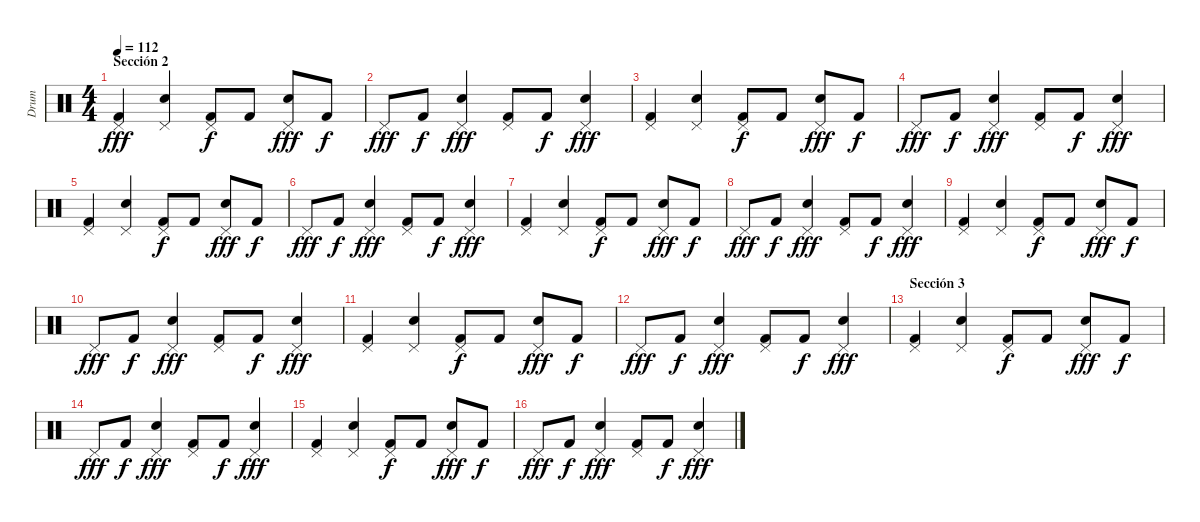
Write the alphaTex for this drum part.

\track ("Drum" "Drum") {instrument percussion}
\staff {score}
\articulation defaults
\ts (4 4)
\section ("" "Sección 2")
\tempo 112
\clef neutral
\ks c
("Pedal Hi-Hat (hit)" "Kick (hit) 2").4{dy fff} ("Pedal Hi-Hat (hit)" "Electric Snare (hit)").4 ("Pedal Hi-Hat (hit)" "Kick (hit) 2").8{dy f} "Kick (hit) 2".8 ("Pedal Hi-Hat (hit)" "Electric Snare (hit)").8{dy fff} "Kick (hit) 2".8{dy f} |
"Pedal Hi-Hat (hit)".8{dy fff} "Kick (hit) 2".8{dy f} ("Pedal Hi-Hat (hit)" "Electric Snare (hit)").4{dy fff} ("Pedal Hi-Hat (hit)" "Kick (hit) 2").8 "Kick (hit) 2".8{dy f} ("Pedal Hi-Hat (hit)" "Electric Snare (hit)").4{dy fff} |
("Pedal Hi-Hat (hit)" "Kick (hit) 2").4 ("Pedal Hi-Hat (hit)" "Electric Snare (hit)").4 ("Pedal Hi-Hat (hit)" "Kick (hit) 2").8{dy f} "Kick (hit) 2".8 ("Pedal Hi-Hat (hit)" "Electric Snare (hit)").8{dy fff} "Kick (hit) 2".8{dy f} |
"Pedal Hi-Hat (hit)".8{dy fff} "Kick (hit) 2".8{dy f} ("Pedal Hi-Hat (hit)" "Electric Snare (hit)").4{dy fff} ("Pedal Hi-Hat (hit)" "Kick (hit) 2").8 "Kick (hit) 2".8{dy f} ("Pedal Hi-Hat (hit)" "Electric Snare (hit)").4{dy fff} |
("Pedal Hi-Hat (hit)" "Kick (hit) 2").4 ("Pedal Hi-Hat (hit)" "Electric Snare (hit)").4 ("Pedal Hi-Hat (hit)" "Kick (hit) 2").8{dy f} "Kick (hit) 2".8 ("Pedal Hi-Hat (hit)" "Electric Snare (hit)").8{dy fff} "Kick (hit) 2".8{dy f} |
"Pedal Hi-Hat (hit)".8{dy fff} "Kick (hit) 2".8{dy f} ("Pedal Hi-Hat (hit)" "Electric Snare (hit)").4{dy fff} ("Pedal Hi-Hat (hit)" "Kick (hit) 2").8 "Kick (hit) 2".8{dy f} ("Pedal Hi-Hat (hit)" "Electric Snare (hit)").4{dy fff} |
("Pedal Hi-Hat (hit)" "Kick (hit) 2").4 ("Pedal Hi-Hat (hit)" "Electric Snare (hit)").4 ("Pedal Hi-Hat (hit)" "Kick (hit) 2").8{dy f} "Kick (hit) 2".8 ("Pedal Hi-Hat (hit)" "Electric Snare (hit)").8{dy fff} "Kick (hit) 2".8{dy f} |
"Pedal Hi-Hat (hit)".8{dy fff} "Kick (hit) 2".8{dy f} ("Pedal Hi-Hat (hit)" "Electric Snare (hit)").4{dy fff} ("Pedal Hi-Hat (hit)" "Kick (hit) 2").8 "Kick (hit) 2".8{dy f} ("Pedal Hi-Hat (hit)" "Electric Snare (hit)").4{dy fff} |
("Pedal Hi-Hat (hit)" "Kick (hit) 2").4 ("Pedal Hi-Hat (hit)" "Electric Snare (hit)").4 ("Pedal Hi-Hat (hit)" "Kick (hit) 2").8{dy f} "Kick (hit) 2".8 ("Pedal Hi-Hat (hit)" "Electric Snare (hit)").8{dy fff} "Kick (hit) 2".8{dy f} |
"Pedal Hi-Hat (hit)".8{dy fff} "Kick (hit) 2".8{dy f} ("Pedal Hi-Hat (hit)" "Electric Snare (hit)").4{dy fff} ("Pedal Hi-Hat (hit)" "Kick (hit) 2").8 "Kick (hit) 2".8{dy f} ("Pedal Hi-Hat (hit)" "Electric Snare (hit)").4{dy fff} |
("Pedal Hi-Hat (hit)" "Kick (hit) 2").4 ("Pedal Hi-Hat (hit)" "Electric Snare (hit)").4 ("Pedal Hi-Hat (hit)" "Kick (hit) 2").8{dy f} "Kick (hit) 2".8 ("Pedal Hi-Hat (hit)" "Electric Snare (hit)").8{dy fff} "Kick (hit) 2".8{dy f} |
"Pedal Hi-Hat (hit)".8{dy fff} "Kick (hit) 2".8{dy f} ("Pedal Hi-Hat (hit)" "Electric Snare (hit)").4{dy fff} ("Pedal Hi-Hat (hit)" "Kick (hit) 2").8 "Kick (hit) 2".8{dy f} ("Pedal Hi-Hat (hit)" "Electric Snare (hit)").4{dy fff} |
\section ("" "Sección 3")
("Pedal Hi-Hat (hit)" "Kick (hit) 2").4 ("Pedal Hi-Hat (hit)" "Electric Snare (hit)").4 ("Pedal Hi-Hat (hit)" "Kick (hit) 2").8{dy f} "Kick (hit) 2".8 ("Pedal Hi-Hat (hit)" "Electric Snare (hit)").8{dy fff} "Kick (hit) 2".8{dy f} |
"Pedal Hi-Hat (hit)".8{dy fff} "Kick (hit) 2".8{dy f} ("Pedal Hi-Hat (hit)" "Electric Snare (hit)").4{dy fff} ("Pedal Hi-Hat (hit)" "Kick (hit) 2").8 "Kick (hit) 2".8{dy f} ("Pedal Hi-Hat (hit)" "Electric Snare (hit)").4{dy fff} |
("Pedal Hi-Hat (hit)" "Kick (hit) 2").4 ("Pedal Hi-Hat (hit)" "Electric Snare (hit)").4 ("Pedal Hi-Hat (hit)" "Kick (hit) 2").8{dy f} "Kick (hit) 2".8 ("Pedal Hi-Hat (hit)" "Electric Snare (hit)").8{dy fff} "Kick (hit) 2".8{dy f} |
"Pedal Hi-Hat (hit)".8{dy fff} "Kick (hit) 2".8{dy f} ("Pedal Hi-Hat (hit)" "Electric Snare (hit)").4{dy fff} ("Pedal Hi-Hat (hit)" "Kick (hit) 2").8 "Kick (hit) 2".8{dy f} ("Pedal Hi-Hat (hit)" "Electric Snare (hit)").4{dy fff}
